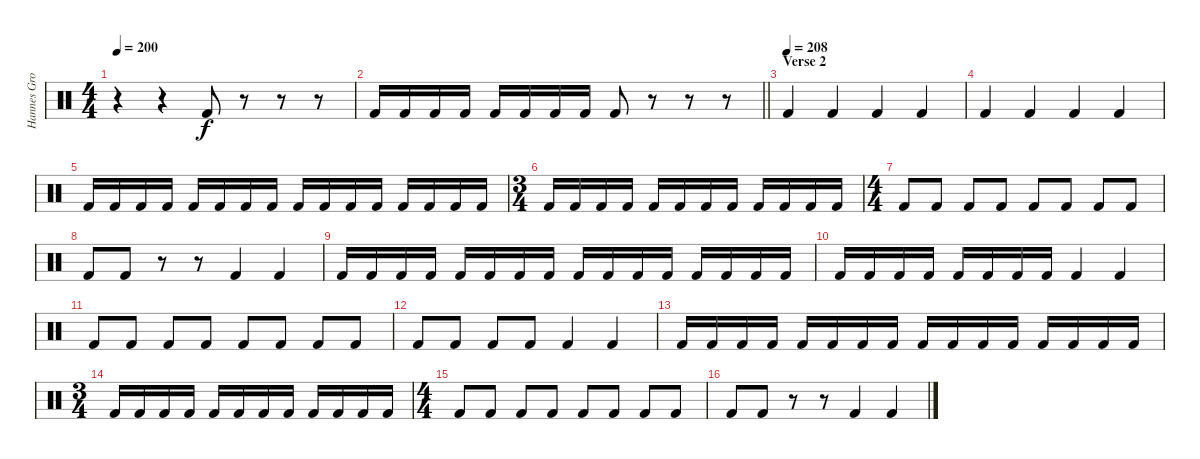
\track ("Hannes Grossmann" "Hannes Gro") {instrument percussion}
\staff {score}
\articulation defaults
\ts (4 4)
\tempo 200
\clef neutral
\ks c
r.4{dy f} r.4 "Kick (hit) 2".8 r.8 r.8 r.8 |
\barLineRight lightlight "Kick (hit) 2".16 "Kick (hit) 2".16 "Kick (hit) 2".16 "Kick (hit) 2".16 "Kick (hit) 2".16 "Kick (hit) 2".16 "Kick (hit) 2".16 "Kick (hit) 2".16 "Kick (hit) 2".8
r.8 r.8 r.8 |
\section ("" "Verse 2")
\tempo (208)
"Kick (hit) 2".4 "Kick (hit) 2".4 "Kick (hit) 2".4 "Kick (hit) 2".4 |
"Kick (hit) 2".4 "Kick (hit) 2".4 "Kick (hit) 2".4 "Kick (hit) 2".4 |
"Kick (hit) 2".16 "Kick (hit) 2".16 "Kick (hit) 2".16 "Kick (hit) 2".16 "Kick (hit) 2".16 "Kick (hit) 2".16 "Kick (hit) 2".16 "Kick (hit) 2".16 "Kick (hit) 2".16 "Kick (hit) 2".16 "Kick (hit) 2".16 "Kick (hit) 2".16 "Kick (hit) 2".16 "Kick (hit) 2".16 "Kick (hit) 2".16 "Kick (hit) 2".16 |
\ts (3 4)
"Kick (hit) 2".16 "Kick (hit) 2".16 "Kick (hit) 2".16 "Kick (hit) 2".16 "Kick (hit) 2".16 "Kick (hit) 2".16 "Kick (hit) 2".16 "Kick (hit) 2".16 "Kick (hit) 2".16 "Kick (hit) 2".16 "Kick (hit) 2".16 "Kick (hit) 2".16 |
\ts (4 4)
"Kick (hit) 2".8 "Kick (hit) 2".8 "Kick (hit) 2".8 "Kick (hit) 2".8 "Kick (hit) 2".8 "Kick (hit) 2".8 "Kick (hit) 2".8 "Kick (hit) 2".8 |
"Kick (hit) 2".8 "Kick (hit) 2".8 r.8 r.8 "Kick (hit) 2".4 "Kick (hit) 2".4 |
"Kick (hit) 2".16 "Kick (hit) 2".16 "Kick (hit) 2".16 "Kick (hit) 2".16 "Kick (hit) 2".16 "Kick (hit) 2".16 "Kick (hit) 2".16 "Kick (hit) 2".16 "Kick (hit) 2".16 "Kick (hit) 2".16 "Kick (hit) 2".16 "Kick (hit) 2".16 "Kick (hit) 2".16 "Kick (hit) 2".16 "Kick (hit) 2".16 "Kick (hit) 2".16 |
"Kick (hit) 2".16 "Kick (hit) 2".16 "Kick (hit) 2".16 "Kick (hit) 2".16 "Kick (hit) 2".16 "Kick (hit) 2".16 "Kick (hit) 2".16 "Kick (hit) 2".16 "Kick (hit) 2".4 "Kick (hit) 2".4 |
"Kick (hit) 2".8 "Kick (hit) 2".8 "Kick (hit) 2".8 "Kick (hit) 2".8 "Kick (hit) 2".8 "Kick (hit) 2".8 "Kick (hit) 2".8 "Kick (hit) 2".8 |
"Kick (hit) 2".8 "Kick (hit) 2".8 "Kick (hit) 2".8 "Kick (hit) 2".8 "Kick (hit) 2".4 "Kick (hit) 2".4 |
"Kick (hit) 2".16 "Kick (hit) 2".16 "Kick (hit) 2".16 "Kick (hit) 2".16 "Kick (hit) 2".16 "Kick (hit) 2".16 "Kick (hit) 2".16 "Kick (hit) 2".16 "Kick (hit) 2".16 "Kick (hit) 2".16 "Kick (hit) 2".16 "Kick (hit) 2".16 "Kick (hit) 2".16 "Kick (hit) 2".16 "Kick (hit) 2".16 "Kick (hit) 2".16 |
\ts (3 4)
"Kick (hit) 2".16 "Kick (hit) 2".16 "Kick (hit) 2".16 "Kick (hit) 2".16 "Kick (hit) 2".16 "Kick (hit) 2".16 "Kick (hit) 2".16 "Kick (hit) 2".16 "Kick (hit) 2".16 "Kick (hit) 2".16 "Kick (hit) 2".16 "Kick (hit) 2".16 |
\ts (4 4)
"Kick (hit) 2".8 "Kick (hit) 2".8 "Kick (hit) 2".8 "Kick (hit) 2".8 "Kick (hit) 2".8 "Kick (hit) 2".8 "Kick (hit) 2".8 "Kick (hit) 2".8 |
"Kick (hit) 2".8 "Kick (hit) 2".8 r.8 r.8 "Kick (hit) 2".4 "Kick (hit) 2".4
